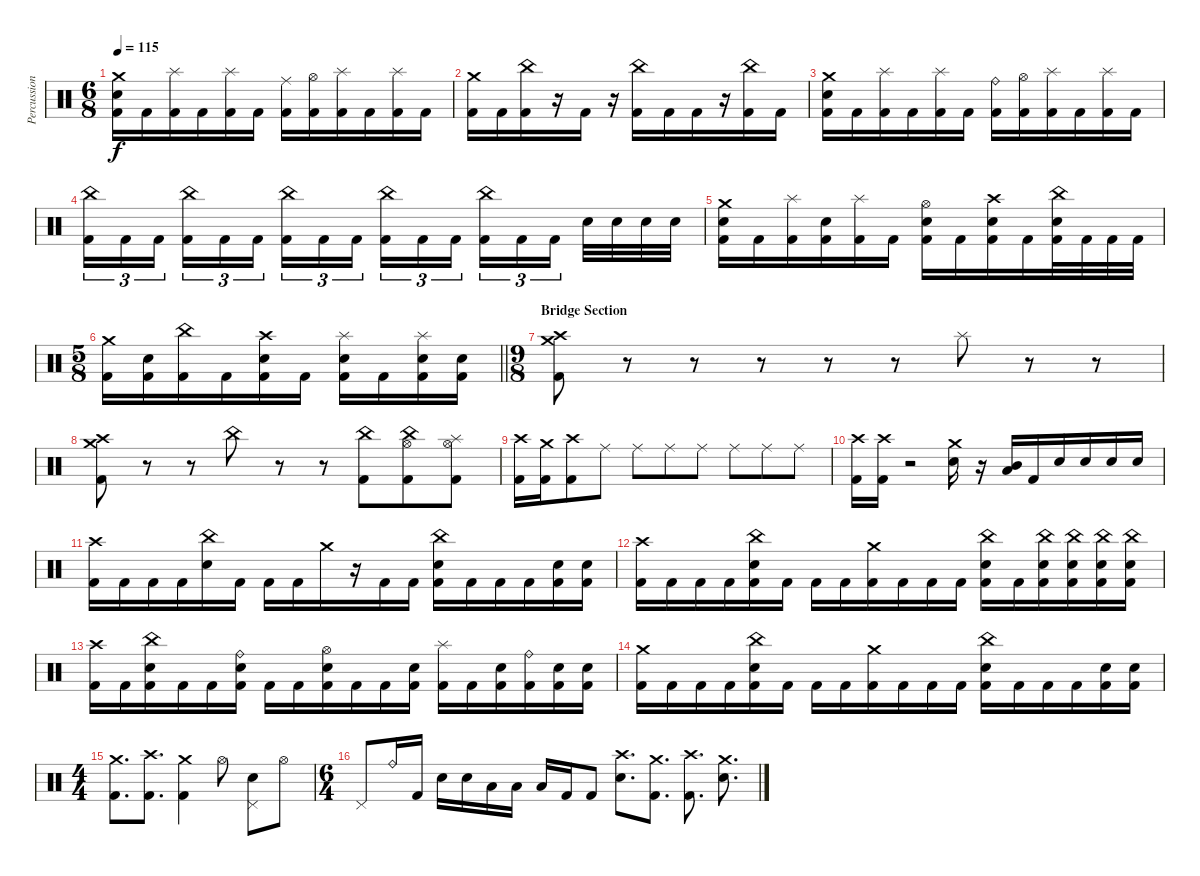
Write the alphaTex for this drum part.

\track ("Percussion" "Percussion") {instrument percussion}
\staff {score}
\articulation defaults
\ts (6 8)
\tempo 115
\clef neutral
\ks c
("Crash medium (hit)" "Electric Snare (hit)" "Kick (hit) 2").16{dy f} "Kick (hit) 2".16 ("Splash (hit)" "Kick (hit) 2").16 "Kick (hit) 2".16 ("Splash (hit)" "Kick (hit) 2").16 "Kick (hit) 2".16 ("Ride (middle)" "Kick (hit) 2").16 ("Hi-Hat (open)" "Kick (hit) 2").16 ("Splash (hit)" "Kick (hit) 2").16 "Kick (hit) 2".16 ("Splash (hit)" "Kick (hit) 2").16 "Kick (hit) 2".16 |
("Crash medium (hit)" "Kick (hit) 2").16 "Kick (hit) 2".16 ("China (hit)" "Kick (hit) 2").16 r.16 "Kick (hit) 2".16 r.16 ("China (hit)" "Kick (hit) 2").16 "Kick (hit) 2".16 "Kick (hit) 2".16 r.16 ("China (hit)" "Kick (hit) 2").16 "Kick (hit) 2".16 |
("Crash medium (hit)" "Electric Snare (hit)" "Kick (hit) 2").16 "Kick (hit) 2".16 ("Splash (hit)" "Kick (hit) 2").16 "Kick (hit) 2".16 ("Splash (hit)" "Kick (hit) 2").16 "Kick (hit) 2".16 ("Ride (bell)" "Kick (hit) 2").16 ("Hi-Hat (open)" "Kick (hit) 2").16 ("Splash (hit)" "Kick (hit) 2").16 "Kick (hit) 2".16 ("Splash (hit)" "Kick (hit) 2").16 "Kick (hit) 2".16 |
("China (hit)" "Kick (hit) 2").16{tu (3 2)} "Kick (hit) 2".16{tu (3 2)} "Kick (hit) 2".16{tu (3 2) beam splitsecondary} ("China (hit)" "Kick (hit) 2").16{tu (3 2)} "Kick (hit) 2".16{tu (3 2)} "Kick (hit) 2".16{tu (3 2) beam splitsecondary} ("China (hit)" "Kick (hit) 2").16{tu (3 2)} "Kick (hit) 2".16{tu (3 2)} "Kick (hit) 2".16{tu (3 2)} ("China (hit)" "Kick (hit) 2").16{tu (3 2)} "Kick (hit) 2".16{tu (3 2)} "Kick (hit) 2".16{tu (3 2) beam splitsecondary} ("China (hit)" "Kick (hit) 2").16{tu (3 2)} "Kick (hit) 2".16{tu (3 2)} "Kick (hit) 2".16{tu (3 2) beam splitsecondary} "Electric Snare (hit)".32 "Electric Snare (hit)".32 "Electric Snare (hit)".32 "Electric Snare (hit)".32 |
("Crash medium (hit)" "Electric Snare (hit)" "Kick (hit) 2").16 "Kick (hit) 2".16 ("Splash (hit)" "Kick (hit) 2").16 ("Electric Snare (hit)" "Kick (hit) 2").16 ("Splash (hit)" "Kick (hit) 2").16 "Kick (hit) 2".16 ("Hi-Hat (open)" "Electric Snare (hit)" "Kick (hit) 2").16 "Kick (hit) 2".16 ("Crash high (hit)" "Electric Snare (hit)" "Kick (hit) 2").16 "Kick (hit) 2".16 ("China (hit)" "Electric Snare (hit)" "Kick (hit) 2").32 "Kick (hit) 2".32 "Kick (hit) 2".32 "Kick (hit) 2".32 |
\ts (5 8)
\barLineRight lightlight
("Crash medium (hit)" "Kick (hit) 2").16 ("Electric Snare (hit)" "Kick (hit) 2").16 ("China (hit)" "Kick (hit) 2").16 "Kick (hit) 2".16 ("Crash high (hit)" "Electric Snare (hit)" "Kick (hit) 2").16 "Kick (hit) 2".16 ("Splash (hit)" "Electric Snare (hit)" "Kick (hit) 2").16 "Kick (hit) 2".16 ("Splash (hit)" "Electric Snare (hit)" "Kick (hit) 2").16 ("Electric Snare (hit)" "Kick (hit) 2").16 |
\ts (9 8)
\section ("" "Bridge Section")
("Crash high (hit)" "Crash medium (hit)" "Kick (hit) 2").8 r.8 r.8 r.8 r.8 r.8 "Splash (hit)".8 r.8 r.8 |
("Crash high (hit)" "Crash medium (hit)" "Kick (hit) 2").8 r.8 r.8 "China (hit)".8 r.8 r.8 ("China (hit)" "Kick (hit) 2").8 ("China (hit)" "Hi-Hat (open)" "Kick (hit) 2").8 ("Splash (hit)" "Hi-Hat (open)" "Kick (hit) 2").8 |
("Crash high (hit)" "Kick (hit) 2").16 ("Crash medium (hit)" "Kick (hit) 2").16 ("Crash high (hit)" "Kick (hit) 2").8 "Ride (middle)".8 "Ride (middle)".8 "Ride (middle)".8 "Ride (middle)".8 "Ride (middle)".8 "Ride (middle)".8 "Ride (middle)".8 |
("Crash high (hit)" "Kick (hit) 2").16 ("Crash high (hit)" "Kick (hit) 2").16 r.2 ("Crash medium (hit)" "Electric Snare (hit)").16 r.16 ("Mid Tom (hit)" "Low Tom (hit)").16 "Kick (hit) 2".16 "Electric Snare (hit)".16 "Electric Snare (hit)".16 "Electric Snare (hit)".16 "Electric Snare (hit)".16 |
("Crash high (hit)" "Kick (hit) 2").16 "Kick (hit) 2".16 "Kick (hit) 2".16 "Kick (hit) 2".16 ("China (hit)" "Electric Snare (hit)").16 "Kick (hit) 2".16 "Kick (hit) 2".16 "Kick (hit) 2".16 "Crash medium (hit)".16 r.16 "Kick (hit) 2".16 "Kick (hit) 2".16 ("China (hit)" "Electric Snare (hit)" "Kick (hit) 2").16 "Kick (hit) 2".16 "Kick (hit) 2".16 "Kick (hit) 2".16 ("Electric Snare (hit)" "Kick (hit) 2").16 ("Electric Snare (hit)" "Kick (hit) 2").16 |
("Crash high (hit)" "Kick (hit) 2").16 "Kick (hit) 2".16 "Kick (hit) 2".16 "Kick (hit) 2".16 ("China (hit)" "Electric Snare (hit)" "Kick (hit) 2").16 "Kick (hit) 2".16 "Kick (hit) 2".16 "Kick (hit) 2".16 ("Crash medium (hit)" "Kick (hit) 2").16 "Kick (hit) 2".16 "Kick (hit) 2".16 "Kick (hit) 2".16 ("China (hit)" "Electric Snare (hit)" "Kick (hit) 2").16 "Kick (hit) 2".16 ("China (hit)" "Electric Snare (hit)" "Kick (hit) 2").16 ("China (hit)" "Electric Snare (hit)" "Kick (hit) 2").16 ("China (hit)" "Electric Snare (hit)" "Kick (hit) 2").16 ("China (hit)" "Electric Snare (hit)" "Kick (hit) 2").16 |
("Crash high (hit)" "Kick (hit) 2").16 "Kick (hit) 2".16 ("China (hit)" "Electric Snare (hit)" "Kick (hit) 2").16 "Kick (hit) 2".16 "Kick (hit) 2".16 ("Ride (bell)" "Electric Snare (hit)" "Kick (hit) 2").16 "Kick (hit) 2".16 "Kick (hit) 2".16 ("Hi-Hat (open)" "Electric Snare (hit)" "Kick (hit) 2").16 "Kick (hit) 2".16 "Kick (hit) 2".16 ("Electric Snare (hit)" "Kick (hit) 2").16 ("Splash (hit)" "Kick (hit) 2").16 "Kick (hit) 2".16 ("Electric Snare (hit)" "Kick (hit) 2").16 ("Ride (bell)" "Kick (hit) 2").16 ("Electric Snare (hit)" "Kick (hit) 2").16 ("Electric Snare (hit)" "Kick (hit) 2").16 |
("Crash medium (hit)" "Kick (hit) 2").16 "Kick (hit) 2".16 "Kick (hit) 2".16 "Kick (hit) 2".16 ("China (hit)" "Electric Snare (hit)" "Kick (hit) 2").16 "Kick (hit) 2".16 "Kick (hit) 2".16 "Kick (hit) 2".16 ("Crash medium (hit)" "Kick (hit) 2").16 "Kick (hit) 2".16 "Kick (hit) 2".16 "Kick (hit) 2".16 ("China (hit)" "Electric Snare (hit)" "Kick (hit) 2").16 "Kick (hit) 2".16 "Kick (hit) 2".16 "Kick (hit) 2".16 ("Electric Snare (hit)" "Kick (hit) 2").16 ("Electric Snare (hit)" "Kick (hit) 2").16 |
\ts (4 4)
("Crash medium (hit)" "Kick (hit) 2").8{d} ("Crash high (hit)" "Kick (hit) 2").8{d} ("Crash medium (hit)" "Kick (hit) 2").4 "Hi-Hat (open)".8 ("Pedal Hi-Hat (hit)" "Electric Snare (hit)").8 "Hi-Hat (open)".8 |
\ts (6 4)
"Pedal Hi-Hat (hit)".8 "Ride (bell)".16 "Kick (hit) 2".16 "Electric Snare (hit)".16 "Electric Snare (hit)".16 "Low Tom (hit)".16 "Low Tom (hit)".16 "Low Floor Tom (hit)".16 "Kick (hit) 2".16 "Kick (hit) 2".8 ("Crash high (hit)" "Electric Snare (hit)").8{d} ("Crash medium (hit)" "Kick (hit) 2").8{d} ("Crash high (hit)" "Kick (hit) 2").8{d} ("Crash medium (hit)" "Electric Snare (hit)").8{d}
